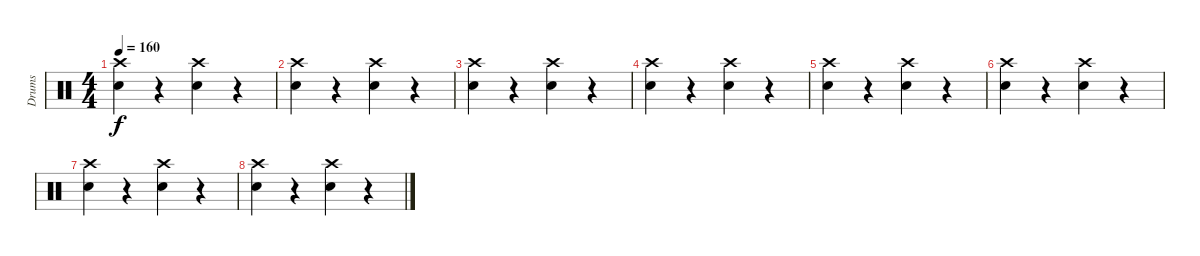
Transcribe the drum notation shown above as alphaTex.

\track ("Drums" "Drums") {instrument percussion}
\staff {score}
\articulation defaults
\ts (4 4)
\tempo 160
\clef neutral
\ks c
("Crash high (hit)" "Snare (hit) 2").4{dy f} r.4 ("Crash high (hit)" "Snare (hit) 2").4 r.4 |
("Crash high (hit)" "Snare (hit) 2").4 r.4 ("Crash high (hit)" "Snare (hit) 2").4 r.4 |
("Crash high (hit)" "Snare (hit) 2").4 r.4 ("Crash high (hit)" "Snare (hit) 2").4 r.4 |
("Crash high (hit)" "Snare (hit) 2").4 r.4 ("Crash high (hit)" "Snare (hit) 2").4 r.4 |
("Crash high (hit)" "Snare (hit) 2").4 r.4 ("Crash high (hit)" "Snare (hit) 2").4 r.4 |
("Crash high (hit)" "Snare (hit) 2").4 r.4 ("Crash high (hit)" "Snare (hit) 2").4 r.4 |
("Crash high (hit)" "Snare (hit) 2").4 r.4 ("Crash high (hit)" "Snare (hit) 2").4 r.4 |
("Crash high (hit)" "Snare (hit) 2").4 r.4 ("Crash high (hit)" "Snare (hit) 2").4 r.4
